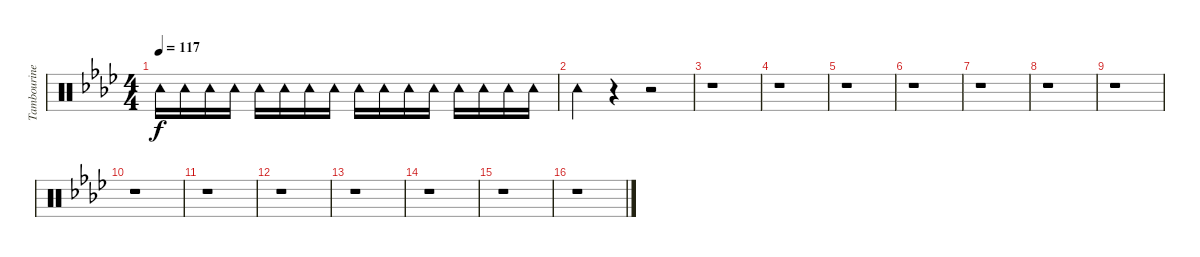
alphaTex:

\track ("Tambourine" "Tambourine") {instrument percussion}
\staff {score}
\articulation defaults
\ts (4 4)
\tempo 117
\clef neutral
\ks ab "Tambourine (hit)".16{dy f} "Tambourine (hit)".16 "Tambourine (hit)".16 "Tambourine (hit)".16 "Tambourine (hit)".16 "Tambourine (hit)".16 "Tambourine (hit)".16 "Tambourine (hit)".16 "Tambourine (hit)".16 "Tambourine (hit)".16 "Tambourine (hit)".16 "Tambourine (hit)".16 "Tambourine (hit)".16 "Tambourine (hit)".16 "Tambourine (hit)".16 "Tambourine (hit)".16
|
"Tambourine (hit)".4 r.4 r.2 |
r.1 |
r.1 |
r.1 |
r.1 |
r.1 |
r.1 |
r.1 |
r.1 |
r.1 |
r.1 |
r.1 |
r.1 |
r.1 |
r.1
